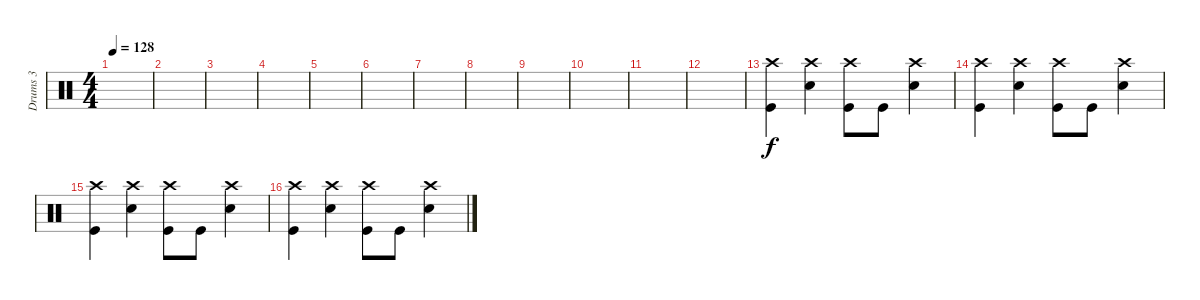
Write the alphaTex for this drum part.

\track ("Drums 3" "Drums 3") {instrument percussion}
\staff {score}
\articulation defaults
\ts (4 4)
\tempo 128
\clef neutral
\ks c
|
|
|
|
|
|
|
|
|
|
|
|
("Crash high (hit)" "Kick (hit)").4 ("Crash high (hit)" "Electric Snare (hit)").4 ("Crash high (hit)" "Kick (hit)").8 "Kick (hit)".8 ("Crash high (hit)" "Electric Snare (hit)").4 |
("Crash high (hit)" "Kick (hit)").4 ("Crash high (hit)" "Electric Snare (hit)").4 ("Crash high (hit)" "Kick (hit)").8 "Kick (hit)".8 ("Crash high (hit)" "Electric Snare (hit)").4 |
("Crash high (hit)" "Kick (hit)").4 ("Crash high (hit)" "Electric Snare (hit)").4 ("Crash high (hit)" "Kick (hit)").8 "Kick (hit)".8 ("Crash high (hit)" "Electric Snare (hit)").4 |
("Crash high (hit)" "Kick (hit)").4 ("Crash high (hit)" "Electric Snare (hit)").4 ("Crash high (hit)" "Kick (hit)").8 "Kick (hit)".8 ("Crash high (hit)" "Electric Snare (hit)").4
